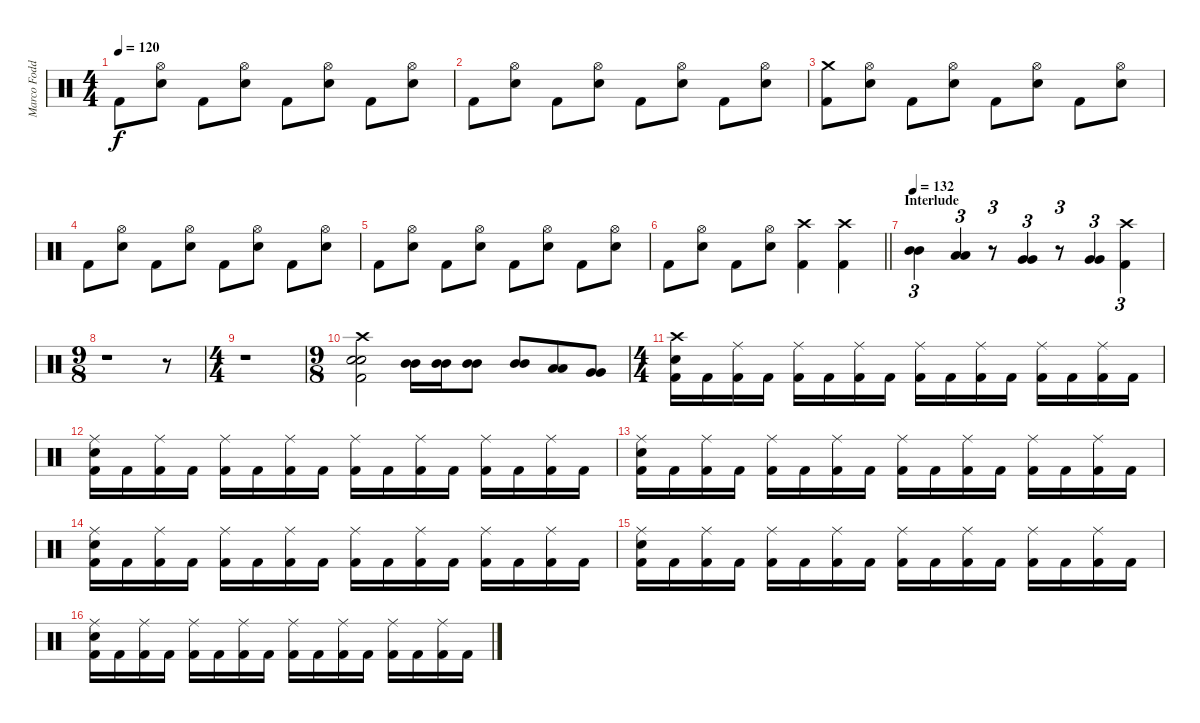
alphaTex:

\track ("Marco Foddis " "Marco Fodd") {instrument percussion}
\staff {score}
\articulation defaults
\ts (4 4)
\tempo 120
\clef neutral
\ks c "Kick (hit) 2".8{dy f}
("Hi-Hat (open)" "Electric Snare (hit)").8 "Kick (hit) 2".8 ("Hi-Hat (open)" "Electric Snare (hit)").8 "Kick (hit) 2".8 ("Hi-Hat (open)" "Electric Snare (hit)").8 "Kick (hit) 2".8 ("Hi-Hat (open)" "Electric Snare (hit)").8 |
"Kick (hit) 2".8 ("Hi-Hat (open)" "Electric Snare (hit)").8 "Kick (hit) 2".8 ("Hi-Hat (open)" "Electric Snare (hit)").8 "Kick (hit) 2".8 ("Hi-Hat (open)" "Electric Snare (hit)").8 "Kick (hit) 2".8 ("Hi-Hat (open)" "Electric Snare (hit)").8 |
("Crash medium (hit)" "Kick (hit) 2").8 ("Hi-Hat (open)" "Electric Snare (hit)").8 "Kick (hit) 2".8 ("Hi-Hat (open)" "Electric Snare (hit)").8 "Kick (hit) 2".8 ("Hi-Hat (open)" "Electric Snare (hit)").8 "Kick (hit) 2".8 ("Hi-Hat (open)" "Electric Snare (hit)").8 |
"Kick (hit) 2".8 ("Hi-Hat (open)" "Electric Snare (hit)").8 "Kick (hit) 2".8 ("Hi-Hat (open)" "Electric Snare (hit)").8 "Kick (hit) 2".8 ("Hi-Hat (open)" "Electric Snare (hit)").8 "Kick (hit) 2".8 ("Hi-Hat (open)" "Electric Snare (hit)").8 |
"Kick (hit) 2".8 ("Hi-Hat (open)" "Electric Snare (hit)").8 "Kick (hit) 2".8 ("Hi-Hat (open)" "Electric Snare (hit)").8 "Kick (hit) 2".8 ("Hi-Hat (open)" "Electric Snare (hit)").8 "Kick (hit) 2".8 ("Hi-Hat (open)" "Electric Snare (hit)").8 |
\barLineRight lightlight "Kick (hit) 2".8
("Hi-Hat (open)" "Electric Snare (hit)").8 "Kick (hit) 2".8 ("Hi-Hat (open)" "Electric Snare (hit)").8 ("Crash high (hit)" "Kick (hit) 2").4 ("Crash high (hit)" "Kick (hit) 2").4 |
\section ("" "Interlude")
\tempo 132
("Mid Tom (hit)" "Mid Tom (hit)").4{tu (3 2)} ("Low Tom (hit)" "Low Tom (hit)").4{tu (3 2)} r.8{tu (3 2)} ("Very Low Tom (hit)" "Very Low Tom (hit)").4{tu (3 2)} r.8{tu (3 2)} ("Very Low Tom (hit)" "Very Low Tom (hit)").4{tu (3 2)} ("Crash high (hit)" "Kick (hit) 2").4{tu (3 2)} |
\ts (9 8)
r.1 r.8 |
\ts (4 4)
r.1 |
\ts (9 8)
("Crash high (hit)" "Electric Snare (hit)" "Electric Snare (hit)" "Kick (hit) 2").2 ("Mid Tom (hit)" "Mid Tom (hit)").16 ("Mid Tom (hit)" "Mid Tom (hit)").16 ("Mid Tom (hit)" "Mid Tom (hit)").8 ("Mid Tom (hit)" "Mid Tom (hit)").8 ("Low Tom (hit)" "Low Tom (hit)").8 ("Very Low Tom (hit)" "Very Low Tom (hit)").8 |
\ts (4 4)
("Crash high (hit)" "Electric Snare (hit)" "Kick (hit) 2").16 "Kick (hit) 2".16 ("Ride (middle)" "Kick (hit) 2").16 "Kick (hit) 2".16 ("Ride (middle)" "Kick (hit) 2").16 "Kick (hit) 2".16 ("Ride (middle)" "Kick (hit) 2").16 "Kick (hit) 2".16 ("Ride (middle)" "Kick (hit) 2").16 "Kick (hit) 2".16 ("Ride (middle)" "Kick (hit) 2").16 "Kick (hit) 2".16 ("Ride (middle)" "Kick (hit) 2").16 "Kick (hit) 2".16 ("Ride (middle)" "Kick (hit) 2").16 "Kick (hit) 2".16 |
("Ride (middle)" "Electric Snare (hit)" "Kick (hit) 2").16 "Kick (hit) 2".16 ("Ride (middle)" "Kick (hit) 2").16 "Kick (hit) 2".16 ("Ride (middle)" "Kick (hit) 2").16 "Kick (hit) 2".16 ("Ride (middle)" "Kick (hit) 2").16 "Kick (hit) 2".16 ("Ride (middle)" "Kick (hit) 2").16 "Kick (hit) 2".16 ("Ride (middle)" "Kick (hit) 2").16 "Kick (hit) 2".16 ("Ride (middle)" "Kick (hit) 2").16 "Kick (hit) 2".16 ("Ride (middle)" "Kick (hit) 2").16 "Kick (hit) 2".16 |
("Ride (middle)" "Electric Snare (hit)" "Kick (hit) 2").16 "Kick (hit) 2".16 ("Ride (middle)" "Kick (hit) 2").16 "Kick (hit) 2".16 ("Ride (middle)" "Kick (hit) 2").16 "Kick (hit) 2".16 ("Ride (middle)" "Kick (hit) 2").16 "Kick (hit) 2".16 ("Ride (middle)" "Kick (hit) 2").16 "Kick (hit) 2".16 ("Ride (middle)" "Kick (hit) 2").16 "Kick (hit) 2".16 ("Ride (middle)" "Kick (hit) 2").16 "Kick (hit) 2".16 ("Ride (middle)" "Kick (hit) 2").16 "Kick (hit) 2".16 |
("Ride (middle)" "Electric Snare (hit)" "Kick (hit) 2").16 "Kick (hit) 2".16 ("Ride (middle)" "Kick (hit) 2").16 "Kick (hit) 2".16 ("Ride (middle)" "Kick (hit) 2").16 "Kick (hit) 2".16 ("Ride (middle)" "Kick (hit) 2").16 "Kick (hit) 2".16 ("Ride (middle)" "Kick (hit) 2").16 "Kick (hit) 2".16 ("Ride (middle)" "Kick (hit) 2").16 "Kick (hit) 2".16 ("Ride (middle)" "Kick (hit) 2").16 "Kick (hit) 2".16 ("Ride (middle)" "Kick (hit) 2").16 "Kick (hit) 2".16 |
("Ride (middle)" "Electric Snare (hit)" "Kick (hit) 2").16 "Kick (hit) 2".16 ("Ride (middle)" "Kick (hit) 2").16 "Kick (hit) 2".16 ("Ride (middle)" "Kick (hit) 2").16 "Kick (hit) 2".16 ("Ride (middle)" "Kick (hit) 2").16 "Kick (hit) 2".16 ("Ride (middle)" "Kick (hit) 2").16 "Kick (hit) 2".16 ("Ride (middle)" "Kick (hit) 2").16 "Kick (hit) 2".16 ("Ride (middle)" "Kick (hit) 2").16 "Kick (hit) 2".16 ("Ride (middle)" "Kick (hit) 2").16 "Kick (hit) 2".16 |
("Ride (middle)" "Electric Snare (hit)" "Kick (hit) 2").16 "Kick (hit) 2".16 ("Ride (middle)" "Kick (hit) 2").16 "Kick (hit) 2".16 ("Ride (middle)" "Kick (hit) 2").16 "Kick (hit) 2".16 ("Ride (middle)" "Kick (hit) 2").16 "Kick (hit) 2".16 ("Ride (middle)" "Kick (hit) 2").16 "Kick (hit) 2".16 ("Ride (middle)" "Kick (hit) 2").16 "Kick (hit) 2".16 ("Ride (middle)" "Kick (hit) 2").16 "Kick (hit) 2".16 ("Ride (middle)" "Kick (hit) 2").16 "Kick (hit) 2".16
